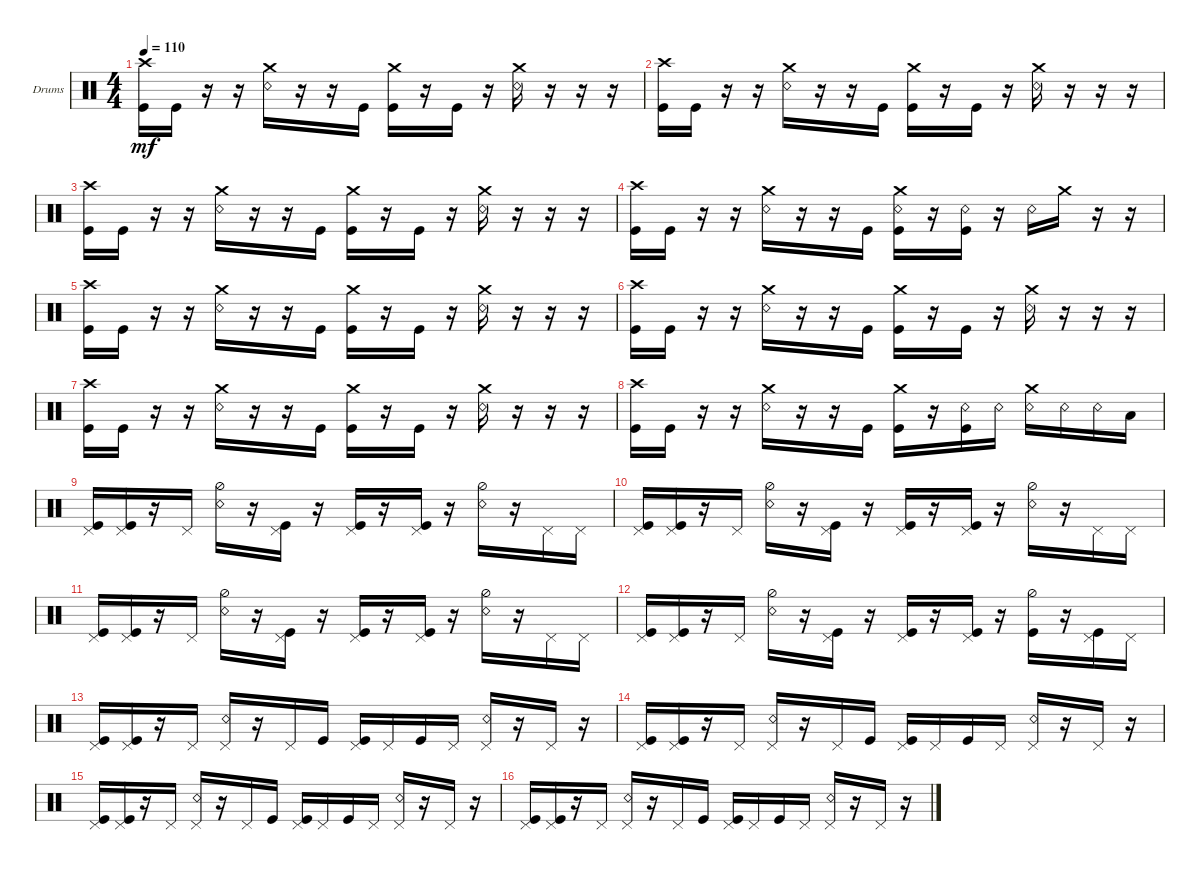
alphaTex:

\defaultSystemsLayout 4
\bracketExtendMode groupsimilarinstruments
\firstSystemTrackNameOrientation horizontal
\otherSystemsTrackNameOrientation horizontal
\track ("Drumkit" "Drums") {instrument percussion}
\staff {score}
\articulation defaults
\ts (4 4)
\tempo 110
\clef neutral
\ks c
("Kick (hit)" "Crash high (hit)").16{dy mf} "Kick (hit)".16 r.16 r.16 ("Snare (rim shot)" "Crash medium (hit)").16 r.16 r.16 "Kick (hit)".16 ("Kick (hit)" "Crash medium (hit)").16 r.16 "Kick (hit)".16 r.16 ("Snare (rim shot)" "Crash medium (hit)").16 r.16 r.16 r.16 |
("Kick (hit)" "Crash high (hit)").16 "Kick (hit)".16 r.16 r.16 ("Snare (rim shot)" "Crash medium (hit)").16 r.16 r.16 "Kick (hit)".16 ("Kick (hit)" "Crash medium (hit)").16 r.16 "Kick (hit)".16 r.16 ("Snare (rim shot)" "Crash medium (hit)").16 r.16 r.16 r.16 |
("Kick (hit)" "Crash high (hit)").16 "Kick (hit)".16 r.16 r.16 ("Snare (rim shot)" "Crash medium (hit)").16 r.16 r.16 "Kick (hit)".16 ("Kick (hit)" "Crash medium (hit)").16 r.16 "Kick (hit)".16 r.16 ("Snare (rim shot)" "Crash medium (hit)").16 r.16 r.16 r.16 |
("Kick (hit)" "Crash high (hit)").16 "Kick (hit)".16 r.16 r.16 ("Snare (rim shot)" "Crash medium (hit)").16 r.16 r.16 "Kick (hit)".16 ("Kick (hit)" "Crash medium (hit)" "Snare (rim shot)").16 r.16 ("Kick (hit)" "Snare (rim shot)").16 r.16 "Snare (rim shot)".16 "Crash medium (hit)".16 r.16 r.16 |
("Kick (hit)" "Crash high (hit)").16 "Kick (hit)".16 r.16 r.16 ("Snare (rim shot)" "Crash medium (hit)").16 r.16 r.16 "Kick (hit)".16 ("Kick (hit)" "Crash medium (hit)").16 r.16 "Kick (hit)".16 r.16 ("Snare (rim shot)" "Crash medium (hit)").16 r.16 r.16 r.16 |
("Kick (hit)" "Crash high (hit)").16 "Kick (hit)".16 r.16 r.16 ("Snare (rim shot)" "Crash medium (hit)").16 r.16 r.16 "Kick (hit)".16 ("Kick (hit)" "Crash medium (hit)").16 r.16 "Kick (hit)".16 r.16 ("Snare (rim shot)" "Crash medium (hit)").16 r.16 r.16 r.16 |
("Kick (hit)" "Crash high (hit)").16 "Kick (hit)".16 r.16 r.16 ("Snare (rim shot)" "Crash medium (hit)").16 r.16 r.16 "Kick (hit)".16 ("Kick (hit)" "Crash medium (hit)").16 r.16 "Kick (hit)".16 r.16 ("Snare (rim shot)" "Crash medium (hit)").16 r.16 r.16 r.16 |
("Kick (hit)" "Crash high (hit)").16 "Kick (hit)".16 r.16 r.16 ("Snare (rim shot)" "Crash medium (hit)").16 r.16 r.16 "Kick (hit)".16 ("Kick (hit)" "Crash medium (hit)").16 r.16 ("Kick (hit)" "Snare (rim shot)").16 "Snare (rim shot)".16 ("Snare (rim shot)" "Crash medium (hit)").16 "Snare (rim shot)".16 "Snare (rim shot)".16 "Low Tom (hit)".16 |
("Pedal Hi-Hat (hit)" "Kick (hit)").16 ("Pedal Hi-Hat (hit)" "Kick (hit)").16 r.16 "Pedal Hi-Hat (hit)".16 ("Hi-Hat (half)" "Snare (rim shot)").16 r.16 ("Pedal Hi-Hat (hit)" "Kick (hit)").16 r.16 ("Pedal Hi-Hat (hit)" "Kick (hit)").16 r.16 ("Pedal Hi-Hat (hit)" "Kick (hit)").16 r.16 ("Snare (rim shot)" "Hi-Hat (half)").16 r.16 "Pedal Hi-Hat (hit)".16 "Pedal Hi-Hat (hit)".16 |
("Pedal Hi-Hat (hit)" "Kick (hit)").16 ("Pedal Hi-Hat (hit)" "Kick (hit)").16 r.16 "Pedal Hi-Hat (hit)".16 ("Hi-Hat (half)" "Snare (rim shot)").16 r.16 ("Pedal Hi-Hat (hit)" "Kick (hit)").16 r.16 ("Pedal Hi-Hat (hit)" "Kick (hit)").16 r.16 ("Pedal Hi-Hat (hit)" "Kick (hit)").16 r.16 ("Snare (rim shot)" "Hi-Hat (half)").16 r.16 "Pedal Hi-Hat (hit)".16 "Pedal Hi-Hat (hit)".16 |
("Pedal Hi-Hat (hit)" "Kick (hit)").16 ("Pedal Hi-Hat (hit)" "Kick (hit)").16 r.16 "Pedal Hi-Hat (hit)".16 ("Hi-Hat (half)" "Snare (rim shot)").16 r.16 ("Pedal Hi-Hat (hit)" "Kick (hit)").16 r.16 ("Pedal Hi-Hat (hit)" "Kick (hit)").16 r.16 ("Pedal Hi-Hat (hit)" "Kick (hit)").16 r.16 ("Snare (rim shot)" "Hi-Hat (half)").16 r.16 "Pedal Hi-Hat (hit)".16 "Pedal Hi-Hat (hit)".16 |
("Pedal Hi-Hat (hit)" "Kick (hit)").16 ("Pedal Hi-Hat (hit)" "Kick (hit)").16 r.16 "Pedal Hi-Hat (hit)".16 ("Hi-Hat (half)" "Snare (rim shot)").16 r.16 ("Pedal Hi-Hat (hit)" "Kick (hit)").16 r.16 ("Pedal Hi-Hat (hit)" "Kick (hit)").16 r.16 ("Pedal Hi-Hat (hit)" "Kick (hit)").16 r.16 ("Hi-Hat (half)" "Kick (hit)").16 r.16 ("Pedal Hi-Hat (hit)" "Kick (hit)").16 "Pedal Hi-Hat (hit)".16 |
("Pedal Hi-Hat (hit)" "Kick (hit)").16 ("Pedal Hi-Hat (hit)" "Kick (hit)").16 r.16 "Pedal Hi-Hat (hit)".16 ("Pedal Hi-Hat (hit)" "Snare (rim shot)").16 r.16 "Pedal Hi-Hat (hit)".16 "Kick (hit)".16 ("Pedal Hi-Hat (hit)" "Kick (hit)").16 "Pedal Hi-Hat (hit)".16 "Kick (hit)".16 "Pedal Hi-Hat (hit)".16 ("Pedal Hi-Hat (hit)" "Snare (rim shot)").16 r.16 "Pedal Hi-Hat (hit)".16 r.16 |
("Pedal Hi-Hat (hit)" "Kick (hit)").16 ("Pedal Hi-Hat (hit)" "Kick (hit)").16 r.16 "Pedal Hi-Hat (hit)".16 ("Pedal Hi-Hat (hit)" "Snare (rim shot)").16 r.16 "Pedal Hi-Hat (hit)".16 "Kick (hit)".16 ("Pedal Hi-Hat (hit)" "Kick (hit)").16 "Pedal Hi-Hat (hit)".16 "Kick (hit)".16 "Pedal Hi-Hat (hit)".16 ("Pedal Hi-Hat (hit)" "Snare (rim shot)").16 r.16 "Pedal Hi-Hat (hit)".16 r.16 |
("Pedal Hi-Hat (hit)" "Kick (hit)").16 ("Pedal Hi-Hat (hit)" "Kick (hit)").16 r.16 "Pedal Hi-Hat (hit)".16 ("Pedal Hi-Hat (hit)" "Snare (rim shot)").16 r.16 "Pedal Hi-Hat (hit)".16 "Kick (hit)".16 ("Pedal Hi-Hat (hit)" "Kick (hit)").16 "Pedal Hi-Hat (hit)".16 "Kick (hit)".16 "Pedal Hi-Hat (hit)".16 ("Pedal Hi-Hat (hit)" "Snare (rim shot)").16 r.16 "Pedal Hi-Hat (hit)".16 r.16 |
("Pedal Hi-Hat (hit)" "Kick (hit)").16 ("Pedal Hi-Hat (hit)" "Kick (hit)").16 r.16 "Pedal Hi-Hat (hit)".16 ("Pedal Hi-Hat (hit)" "Snare (rim shot)").16 r.16 "Pedal Hi-Hat (hit)".16 "Kick (hit)".16 ("Pedal Hi-Hat (hit)" "Kick (hit)").16 "Pedal Hi-Hat (hit)".16 "Kick (hit)".16 "Pedal Hi-Hat (hit)".16 ("Pedal Hi-Hat (hit)" "Snare (rim shot)").16 r.16 "Pedal Hi-Hat (hit)".16 r.16
